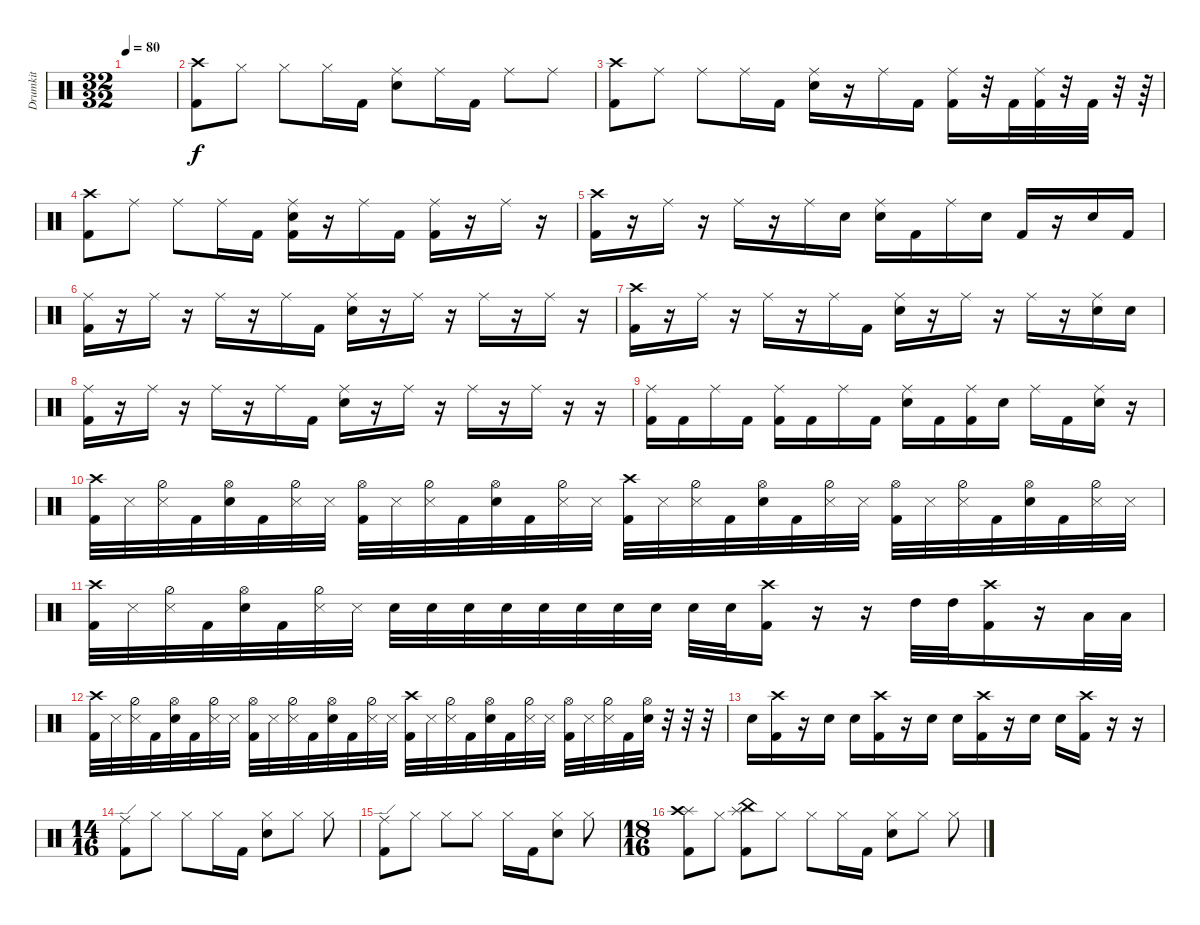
\track ("Drumkit" "Drumkit") {instrument percussion}
\staff {score}
\articulation defaults
\ts (32 32)
\tempo 80
\clef neutral
\ks c
|
("Kick (hit) 2" "Crash high (hit)").8 "Hi-Hat (closed)".8 "Hi-Hat (closed)".8 "Hi-Hat (closed)".16 "Kick (hit) 2".16 ("Snare (hit) 2" "Ride (middle)").8 "Ride (middle)".16 "Kick (hit) 2".16 "Ride (middle)".8 "Ride (middle)".8 |
("Crash high (hit)" "Kick (hit) 2").8 "Ride (middle)".8 "Ride (middle)".8 "Ride (middle)".16 "Kick (hit) 2".16 ("Snare (hit) 2" "Ride (middle)").16 r.16 "Ride (middle)".16 "Kick (hit) 2".16 ("Kick (hit) 2" "Ride (middle)").16 r.32 "Kick (hit) 2".32 ("Kick (hit) 2" "Ride (middle)").32 r.32 "Kick (hit) 2".32 r.32 r.64 |
("Kick (hit) 2" "Crash high (hit)").8 "Ride (middle)".8 "Ride (middle)".8 "Ride (middle)".16 "Kick (hit) 2".16 ("Snare (hit) 2" "Ride (middle)" "Kick (hit) 2").16 r.16 "Ride (middle)".16 "Kick (hit) 2".16 ("Kick (hit) 2" "Ride (middle)").16 r.16 "Ride (middle)".16 r.16 |
("Crash high (hit)" "Kick (hit) 2").16 r.16 "Ride (middle)".16 r.16 "Ride (middle)".16 r.16 "Ride (middle)".16 "Snare (hit) 2".16 ("Snare (hit) 2" "Ride (middle)").16 "Kick (hit) 2".16 "Ride (middle)".16 "Snare (hit) 2".16 "Kick (hit) 2".16 r.16 "Snare (hit) 2".16 "Kick (hit) 2".16 |
("Kick (hit) 2" "Ride (middle)").16 r.16 "Ride (middle)".16 r.16 "Ride (middle)".16 r.16 "Ride (middle)".16 "Kick (hit) 2".16 ("Snare (hit) 2" "Ride (middle)").16 r.16 "Ride (middle)".16 r.16 "Ride (middle)".16 r.16 "Ride (middle)".16 r.16 |
("Crash high (hit)" "Kick (hit) 2").16 r.16 "Ride (middle)".16 r.16 "Ride (middle)".16 r.16 "Ride (middle)".16 "Kick (hit) 2".16 ("Snare (hit) 2" "Ride (middle)").16 r.16 "Ride (middle)".16 r.16 "Ride (middle)".16 r.16 ("Ride (middle)" "Snare (hit) 2").16 "Snare (hit) 2".16 |
("Kick (hit) 2" "Ride (middle)").16 r.16 "Ride (middle)".16 r.16 "Ride (middle)".16 r.16 "Ride (middle)".16 "Kick (hit) 2".16 ("Snare (hit) 2" "Ride (middle)").16 r.16 "Ride (middle)".16 r.16 "Ride (middle)".16 r.16 "Ride (middle)".16 r.16 r.16 |
("Kick (hit) 2" "Ride (middle)").16 "Kick (hit) 2".16 "Ride (middle)".16 "Kick (hit) 2".16 ("Kick (hit) 2" "Ride (middle)").16 "Kick (hit) 2".16 "Ride (middle)".16 "Kick (hit) 2".16 ("Snare (hit) 2" "Ride (middle)").16 "Kick (hit) 2".16 ("Kick (hit) 2" "Ride (middle)").16 "Snare (hit) 2".16 "Ride (middle)".16 "Kick (hit) 2".16 ("Snare (hit) 2" "Ride (middle)").16 r.16 |
("Kick (hit) 2" "Crash high (hit)").32 "Snare (side stick) 3".32 ("Snare (side stick) 3" "Hi-Hat (half)").32 "Kick (hit) 2".32 ("Snare (hit) 2" "Hi-Hat (open)").32 "Kick (hit) 2".32 ("Snare (side stick) 3" "Hi-Hat (half)").32 "Snare (side stick) 3".32 ("Hi-Hat (open)" "Kick (hit) 2").32 "Snare (side stick) 3".32 ("Snare (side stick) 3" "Hi-Hat (half)").32 "Kick (hit) 2".32 ("Snare (hit) 2" "Hi-Hat (open)").32 "Kick (hit) 2".32 ("Hi-Hat (half)" "Snare (side stick) 3").32 "Snare (side stick) 3".32 ("Kick (hit) 2" "Crash high (hit)").32 "Snare (side stick) 3".32 ("Snare (side stick) 3" "Hi-Hat (half)").32 "Kick (hit) 2".32 ("Snare (hit) 2" "Hi-Hat (open)").32 "Kick (hit) 2".32 ("Snare (side stick) 3" "Hi-Hat (half)").32 "Snare (side stick) 3".32 ("Hi-Hat (open)" "Kick (hit) 2").32 "Snare (side stick) 3".32 ("Snare (side stick) 3" "Hi-Hat (half)").32 "Kick (hit) 2".32 ("Snare (hit) 2" "Hi-Hat (open)").32 "Kick (hit) 2".32 ("Hi-Hat (half)" "Snare (side stick) 3").32 "Snare (side stick) 3".32 |
("Kick (hit) 2" "Crash high (hit)").32 "Snare (side stick) 3".32 ("Snare (side stick) 3" "Hi-Hat (half)").32 "Kick (hit) 2".32 ("Snare (hit) 2" "Hi-Hat (open)").32 "Kick (hit) 2".32 ("Snare (side stick) 3" "Hi-Hat (half)").32 "Snare (side stick) 3".32 "Snare (hit) 2".32 "Snare (hit) 2".32 "Snare (hit) 2".32 "Snare (hit) 2".32 "Snare (hit) 2".32 "Snare (hit) 2".32 "Snare (hit) 2".32 "Snare (hit) 2".32 "Snare (hit) 2".32 "Snare (hit) 2".32 ("Kick (hit) 2" "Crash high (hit)").16 r.16 r.16 "High Tom (hit)".32 "High Tom (hit)".32 ("Kick (hit) 2" "Crash high (hit)").16 r.16 "Low Tom (hit)".32 "Low Tom (hit)".32 |
("Kick (hit) 2" "Crash high (hit)").32 "Snare (side stick) 3".32 ("Snare (side stick) 3" "Hi-Hat (half)").32 "Kick (hit) 2".32 ("Snare (hit) 2" "Hi-Hat (open)").32 "Kick (hit) 2".32 ("Snare (side stick) 3" "Hi-Hat (half)").32 "Snare (side stick) 3".32 ("Hi-Hat (open)" "Kick (hit) 2").32 "Snare (side stick) 3".32 ("Snare (side stick) 3" "Hi-Hat (half)").32 "Kick (hit) 2".32 ("Snare (hit) 2" "Hi-Hat (open)").32 "Kick (hit) 2".32 ("Hi-Hat (half)" "Snare (side stick) 3").32 "Snare (side stick) 3".32 ("Kick (hit) 2" "Crash high (hit)").32 "Snare (side stick) 3".32 ("Snare (side stick) 3" "Hi-Hat (half)").32 "Kick (hit) 2".32 ("Snare (hit) 2" "Hi-Hat (open)").32 "Kick (hit) 2".32 ("Snare (side stick) 3" "Hi-Hat (half)").32 "Snare (side stick) 3".32 ("Hi-Hat (open)" "Kick (hit) 2").32 "Snare (side stick) 3".32 ("Snare (side stick) 3" "Hi-Hat (half)").32 "Kick (hit) 2".32 ("Snare (hit) 2" "Hi-Hat (open)").32 r.32 r.32 r.32 |
"Snare (hit) 2".16 ("Crash high (hit)" "Kick (hit) 2").16 r.16 "Snare (hit) 2".16 "Snare (hit) 2".16 ("Kick (hit) 2" "Crash high (hit)").16 r.16 "Snare (hit) 2".16 "Snare (hit) 2".16 ("Kick (hit) 2" "Crash high (hit)").16 r.16 "Snare (hit) 2".16 "Snare (hit) 2".16 ("Kick (hit) 2" "Crash high (hit)").16 r.16 r.16 |
\ts (14 16)
("Kick (hit) 2" "Ride (edge)").8 "Hi-Hat (closed)".8 "Hi-Hat (closed)".8 "Hi-Hat (closed)".16 "Kick (hit) 2".16 ("Snare (hit) 2" "Hi-Hat (closed)").8 "Hi-Hat (closed)".8 "Hi-Hat (closed)".8 |
("Ride (edge)" "Kick (hit) 2").8 "Hi-Hat (closed)".8 "Hi-Hat (closed)".8 "Hi-Hat (closed)".8 "Hi-Hat (closed)".16 "Kick (hit) 2".16 ("Snare (hit) 2" "Hi-Hat (closed)").8 "Hi-Hat (closed)".8 |
\ts (18 16)
("Kick (hit) 2" "Splash (hit)" "Crash high (hit)").8 "Hi-Hat (closed)".8 ("China (hit)" "Splash (hit)" "Kick (hit) 2").8 "Hi-Hat (closed)".8 "Hi-Hat (closed)".8 "Hi-Hat (closed)".16 "Kick (hit) 2".16 ("Snare (hit) 2" "Hi-Hat (closed)").8 "Hi-Hat (closed)".8 "Hi-Hat (closed)".8
